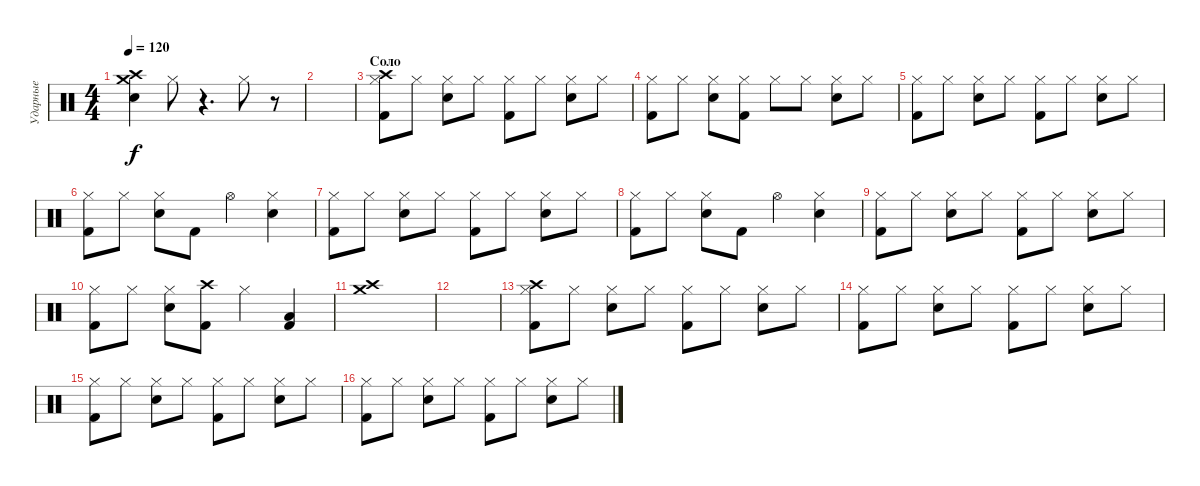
\track ("Ударные" "Ударные") {instrument percussion}
\staff {score}
\articulation defaults
\ts (4 4)
\tempo 120
\clef neutral
\ks c
("Crash high (hit)" "Crash medium (hit)" "Snare (hit) 2").4{dy f} "Hi-Hat (closed)".8 r.4{d} "Hi-Hat (closed)".8 r.8 |
|
\section ("" "Соло")
("Crash high (hit)" "Hi-Hat (closed)" "Kick (hit) 2").8 "Hi-Hat (closed)".8 ("Hi-Hat (closed)" "Snare (hit) 2").8 "Hi-Hat (closed)".8 ("Hi-Hat (closed)" "Kick (hit) 2").8 "Hi-Hat (closed)".8 ("Hi-Hat (closed)" "Snare (hit) 2").8 "Hi-Hat (closed)".8 |
("Hi-Hat (closed)" "Kick (hit) 2").8 "Hi-Hat (closed)".8 ("Hi-Hat (closed)" "Snare (hit) 2").8 ("Hi-Hat (closed)" "Kick (hit) 2").8 "Hi-Hat (closed)".8 "Hi-Hat (closed)".8 ("Hi-Hat (closed)" "Snare (hit) 2").8 "Hi-Hat (closed)".8 |
("Hi-Hat (closed)" "Kick (hit) 2").8 "Hi-Hat (closed)".8 ("Hi-Hat (closed)" "Snare (hit) 2").8 "Hi-Hat (closed)".8 ("Hi-Hat (closed)" "Kick (hit) 2").8 "Hi-Hat (closed)".8 ("Hi-Hat (closed)" "Snare (hit) 2").8 "Hi-Hat (closed)".8 |
("Hi-Hat (closed)" "Kick (hit) 2").8 "Hi-Hat (closed)".8 ("Hi-Hat (closed)" "Snare (hit) 2").8 "Kick (hit) 2".8 "Hi-Hat (open)".4 ("Hi-Hat (closed)" "Snare (hit) 2").4 |
("Hi-Hat (closed)" "Kick (hit) 2").8 "Hi-Hat (closed)".8 ("Hi-Hat (closed)" "Snare (hit) 2").8 "Hi-Hat (closed)".8 ("Hi-Hat (closed)" "Kick (hit) 2").8 "Hi-Hat (closed)".8 ("Hi-Hat (closed)" "Snare (hit) 2").8 "Hi-Hat (closed)".8 |
("Hi-Hat (closed)" "Kick (hit) 2").8 "Hi-Hat (closed)".8 ("Hi-Hat (closed)" "Snare (hit) 2").8 "Kick (hit) 2".8 "Hi-Hat (open)".4 ("Hi-Hat (closed)" "Snare (hit) 2").4 |
("Hi-Hat (closed)" "Kick (hit) 2").8 "Hi-Hat (closed)".8 ("Hi-Hat (closed)" "Snare (hit) 2").8 "Hi-Hat (closed)".8 ("Hi-Hat (closed)" "Kick (hit) 2").8 "Hi-Hat (closed)".8 ("Hi-Hat (closed)" "Snare (hit) 2").8 "Hi-Hat (closed)".8 |
("Hi-Hat (closed)" "Kick (hit) 2").8 "Hi-Hat (closed)".8 ("Hi-Hat (closed)" "Snare (hit) 2").8 ("Crash high (hit)" "Kick (hit) 2").8 "Hi-Hat (closed)".4 ("Low Floor Tom (hit)" "Kick (hit) 2").4 |
("Crash medium (hit)" "Crash high (hit)").1 |
|
("Crash high (hit)" "Hi-Hat (closed)" "Kick (hit) 2").8 "Hi-Hat (closed)".8 ("Hi-Hat (closed)" "Snare (hit) 2").8 "Hi-Hat (closed)".8 ("Hi-Hat (closed)" "Kick (hit) 2").8 "Hi-Hat (closed)".8 ("Hi-Hat (closed)" "Snare (hit) 2").8 "Hi-Hat (closed)".8 |
("Hi-Hat (closed)" "Kick (hit) 2").8 "Hi-Hat (closed)".8 ("Hi-Hat (closed)" "Snare (hit) 2").8 "Hi-Hat (closed)".8 ("Hi-Hat (closed)" "Kick (hit) 2").8 "Hi-Hat (closed)".8 ("Hi-Hat (closed)" "Snare (hit) 2").8 "Hi-Hat (closed)".8 |
("Hi-Hat (closed)" "Kick (hit) 2").8 "Hi-Hat (closed)".8 ("Hi-Hat (closed)" "Snare (hit) 2").8 "Hi-Hat (closed)".8 ("Hi-Hat (closed)" "Kick (hit) 2").8 "Hi-Hat (closed)".8 ("Hi-Hat (closed)" "Snare (hit) 2").8 "Hi-Hat (closed)".8 |
("Hi-Hat (closed)" "Kick (hit) 2").8 "Hi-Hat (closed)".8 ("Hi-Hat (closed)" "Snare (hit) 2").8 "Hi-Hat (closed)".8 ("Hi-Hat (closed)" "Kick (hit) 2").8 "Hi-Hat (closed)".8 ("Hi-Hat (closed)" "Snare (hit) 2").8 "Hi-Hat (closed)".8
